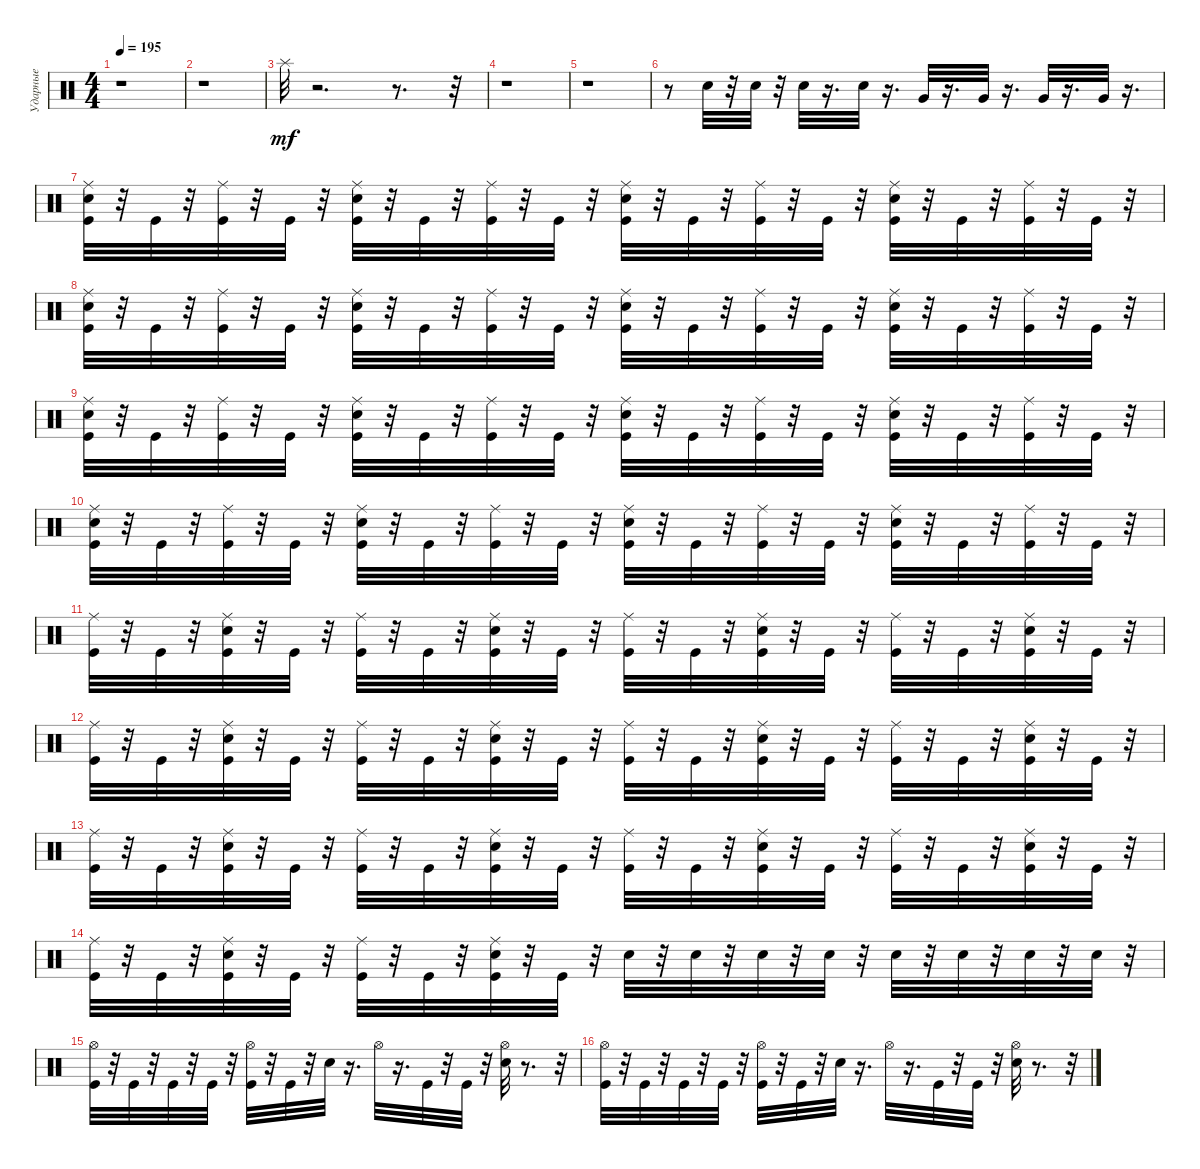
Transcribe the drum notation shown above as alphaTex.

\track ("Ударные" "Ударные") {instrument percussion}
\staff {score}
\articulation defaults
\ts (4 4)
\tempo 195
\clef neutral
\ks c
r.1{dy mf} |
r.1 |
"Splash (hit)".32 r.2{d} r.8{d} r.32 |
r.1 |
r.1 |
r.8 "Electric Snare (hit)".32 r.32 "Electric Snare (hit)".32 r.32 "Electric Snare (hit)".32 r.16{d} "Electric Snare (hit)".32 r.16{d} "Very Low Tom (hit)".32 r.16{d} "Very Low Tom (hit)".32 r.16{d} "Very Low Tom (hit)".32 r.16{d} "Very Low Tom (hit)".32 r.16{d} |
("Ride (middle)" "Electric Snare (hit)" "Kick (hit)").32 r.32 "Kick (hit)".32 r.32 ("Ride (middle)" "Kick (hit)").32 r.32 "Kick (hit)".32 r.32 ("Ride (middle)" "Kick (hit)" "Electric Snare (hit)").32 r.32 "Kick (hit)".32 r.32 ("Ride (middle)" "Kick (hit)").32 r.32 "Kick (hit)".32 r.32 ("Ride (middle)" "Electric Snare (hit)" "Kick (hit)").32 r.32 "Kick (hit)".32 r.32 ("Kick (hit)" "Ride (middle)").32 r.32 "Kick (hit)".32 r.32 ("Ride (middle)" "Electric Snare (hit)" "Kick (hit)").32 r.32 "Kick (hit)".32 r.32 ("Ride (middle)" "Kick (hit)").32 r.32 "Kick (hit)".32 r.32 |
("Ride (middle)" "Electric Snare (hit)" "Kick (hit)").32 r.32 "Kick (hit)".32 r.32 ("Kick (hit)" "Ride (middle)").32 r.32 "Kick (hit)".32 r.32 ("Ride (middle)" "Electric Snare (hit)" "Kick (hit)").32 r.32 "Kick (hit)".32 r.32 ("Kick (hit)" "Ride (middle)").32 r.32 "Kick (hit)".32 r.32 ("Electric Snare (hit)" "Ride (middle)" "Kick (hit)").32 r.32 "Kick (hit)".32 r.32 ("Ride (middle)" "Kick (hit)").32 r.32 "Kick (hit)".32 r.32 ("Electric Snare (hit)" "Kick (hit)" "Ride (middle)").32 r.32 "Kick (hit)".32 r.32 ("Ride (middle)" "Kick (hit)").32 r.32 "Kick (hit)".32 r.32 |
("Ride (middle)" "Electric Snare (hit)" "Kick (hit)").32 r.32 "Kick (hit)".32 r.32 ("Kick (hit)" "Ride (middle)").32 r.32 "Kick (hit)".32 r.32 ("Ride (middle)" "Electric Snare (hit)" "Kick (hit)").32 r.32 "Kick (hit)".32 r.32 ("Kick (hit)" "Ride (middle)").32 r.32 "Kick (hit)".32 r.32 ("Electric Snare (hit)" "Ride (middle)" "Kick (hit)").32 r.32 "Kick (hit)".32 r.32 ("Ride (middle)" "Kick (hit)").32 r.32 "Kick (hit)".32 r.32 ("Electric Snare (hit)" "Kick (hit)" "Ride (middle)").32 r.32 "Kick (hit)".32 r.32 ("Ride (middle)" "Kick (hit)").32 r.32 "Kick (hit)".32 r.32 |
("Ride (middle)" "Electric Snare (hit)" "Kick (hit)").32 r.32 "Kick (hit)".32 r.32 ("Kick (hit)" "Ride (middle)").32 r.32 "Kick (hit)".32 r.32 ("Ride (middle)" "Electric Snare (hit)" "Kick (hit)").32 r.32 "Kick (hit)".32 r.32 ("Kick (hit)" "Ride (middle)").32 r.32 "Kick (hit)".32 r.32 ("Electric Snare (hit)" "Ride (middle)" "Kick (hit)").32 r.32 "Kick (hit)".32 r.32 ("Ride (middle)" "Kick (hit)").32 r.32 "Kick (hit)".32 r.32 ("Electric Snare (hit)" "Kick (hit)" "Ride (middle)").32 r.32 "Kick (hit)".32 r.32 ("Ride (middle)" "Kick (hit)").32 r.32 "Kick (hit)".32 r.32 |
("Ride (middle)" "Kick (hit)").32 r.32 "Kick (hit)".32 r.32 ("Ride (middle)" "Kick (hit)" "Electric Snare (hit)").32 r.32 "Kick (hit)".32 r.32 ("Ride (middle)" "Kick (hit)").32 r.32 "Kick (hit)".32 r.32 ("Ride (middle)" "Kick (hit)" "Electric Snare (hit)").32 r.32 "Kick (hit)".32 r.32 ("Kick (hit)" "Ride (middle)").32 r.32 "Kick (hit)".32 r.32 ("Electric Snare (hit)" "Ride (middle)" "Kick (hit)").32 r.32 "Kick (hit)".32 r.32 ("Kick (hit)" "Ride (middle)").32 r.32 "Kick (hit)".32 r.32 ("Ride (middle)" "Electric Snare (hit)" "Kick (hit)").32 r.32 "Kick (hit)".32 r.32 |
("Ride (middle)" "Kick (hit)").32 r.32 "Kick (hit)".32 r.32 ("Ride (middle)" "Kick (hit)" "Electric Snare (hit)").32 r.32 "Kick (hit)".32 r.32 ("Ride (middle)" "Kick (hit)").32 r.32 "Kick (hit)".32 r.32 ("Ride (middle)" "Kick (hit)" "Electric Snare (hit)").32 r.32 "Kick (hit)".32 r.32 ("Kick (hit)" "Ride (middle)").32 r.32 "Kick (hit)".32 r.32 ("Electric Snare (hit)" "Ride (middle)" "Kick (hit)").32 r.32 "Kick (hit)".32 r.32 ("Kick (hit)" "Ride (middle)").32 r.32 "Kick (hit)".32 r.32 ("Ride (middle)" "Electric Snare (hit)" "Kick (hit)").32 r.32 "Kick (hit)".32 r.32 |
("Ride (middle)" "Kick (hit)").32 r.32 "Kick (hit)".32 r.32 ("Ride (middle)" "Kick (hit)" "Electric Snare (hit)").32 r.32 "Kick (hit)".32 r.32 ("Ride (middle)" "Kick (hit)").32 r.32 "Kick (hit)".32 r.32 ("Ride (middle)" "Kick (hit)" "Electric Snare (hit)").32 r.32 "Kick (hit)".32 r.32 ("Kick (hit)" "Ride (middle)").32 r.32 "Kick (hit)".32 r.32 ("Electric Snare (hit)" "Ride (middle)" "Kick (hit)").32 r.32 "Kick (hit)".32 r.32 ("Kick (hit)" "Ride (middle)").32 r.32 "Kick (hit)".32 r.32 ("Ride (middle)" "Electric Snare (hit)" "Kick (hit)").32 r.32 "Kick (hit)".32 r.32 |
("Ride (middle)" "Kick (hit)").32 r.32 "Kick (hit)".32 r.32 ("Ride (middle)" "Electric Snare (hit)" "Kick (hit)").32 r.32 "Kick (hit)".32 r.32 ("Kick (hit)" "Ride (middle)").32 r.32 "Kick (hit)".32 r.32 ("Ride (middle)" "Electric Snare (hit)" "Kick (hit)").32 r.32 "Kick (hit)".32 r.32 "Electric Snare (hit)".32 r.32 "Electric Snare (hit)".32 r.32 "Electric Snare (hit)".32 r.32 "Electric Snare (hit)".32 r.32 "Electric Snare (hit)".32 r.32 "Electric Snare (hit)".32 r.32 "Electric Snare (hit)".32 r.32 "Electric Snare (hit)".32 r.32 |
("Kick (hit)" "Hi-Hat (open)").32 r.32 "Kick (hit)".32 r.32 "Kick (hit)".32 r.32 "Kick (hit)".32 r.32 ("Kick (hit)" "Hi-Hat (open)").32 r.32 "Kick (hit)".32 r.32 "Electric Snare (hit)".32 r.16{d} "Hi-Hat (open)".32 r.16{d} "Kick (hit)".32 r.32 "Kick (hit)".32 r.32 ("Hi-Hat (open)" "Electric Snare (hit)").32 r.8{d} r.32 |
("Kick (hit)" "Hi-Hat (open)").32 r.32 "Kick (hit)".32 r.32 "Kick (hit)".32 r.32 "Kick (hit)".32 r.32 ("Kick (hit)" "Hi-Hat (open)").32 r.32 "Kick (hit)".32 r.32 "Electric Snare (hit)".32 r.16{d} "Hi-Hat (open)".32 r.16{d} "Kick (hit)".32 r.32 "Kick (hit)".32 r.32 ("Electric Snare (hit)" "Hi-Hat (open)").32 r.8{d} r.32
